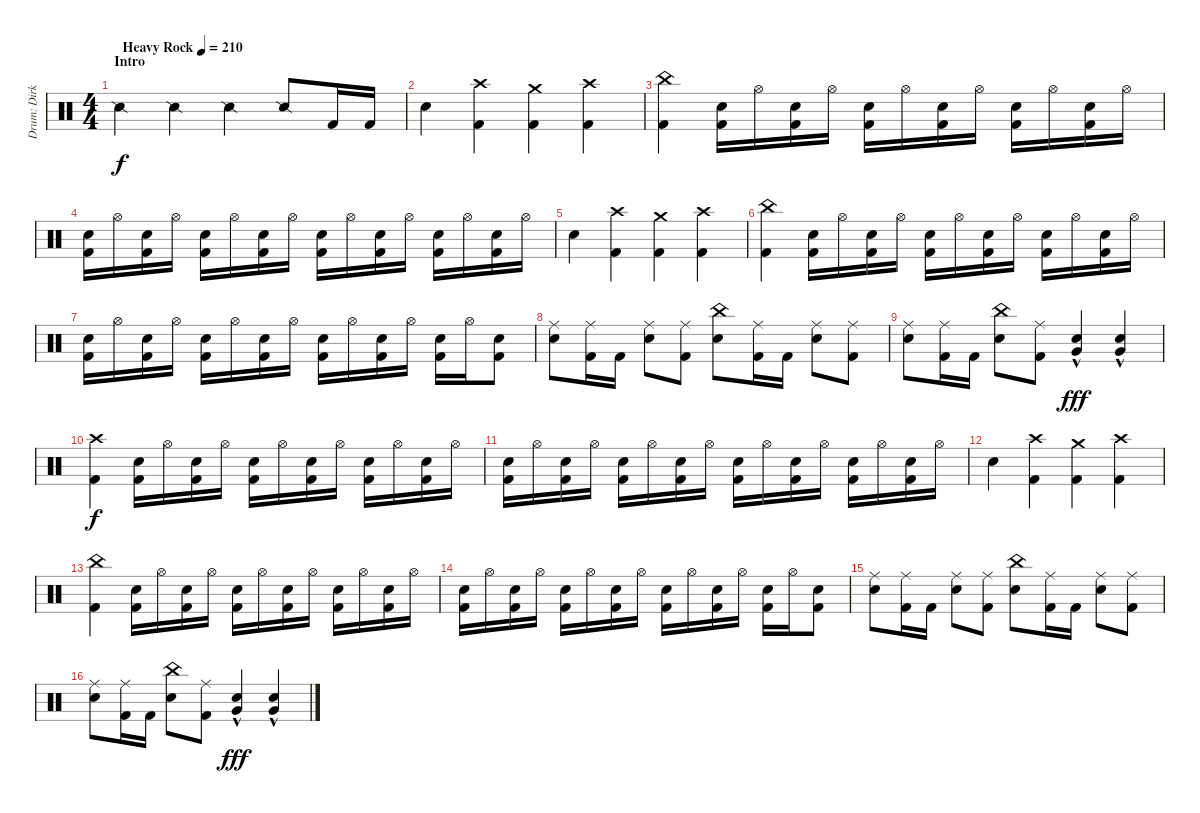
\track ("Drum: Dirk" "Drum: Dirk") {instrument percussion}
\staff {score}
\articulation defaults
\ts (4 4)
\section ("" "Intro")
\tempo (210 "Heavy Rock")
\clef neutral
\ks c "Snare (side stick) 2".4{dy f} "Snare (side stick) 2".4 "Snare (side stick) 2".4 "Snare (side stick) 2".8 "Kick (hit) 2".16 "Kick (hit) 2".16
|
"Electric Snare (hit)".4 ("Crash high (hit)" "Kick (hit) 2").4 ("Crash medium (hit)" "Kick (hit) 2").4 ("Crash high (hit)" "Kick (hit) 2").4 |
("China (hit)" "Kick (hit) 2").4 ("Electric Snare (hit)" "Kick (hit) 2").16 "Hi-Hat (open)".16 ("Electric Snare (hit)" "Kick (hit) 2").16 "Hi-Hat (open)".16 ("Electric Snare (hit)" "Kick (hit) 2").16 "Hi-Hat (open)".16 ("Electric Snare (hit)" "Kick (hit) 2").16 "Hi-Hat (open)".16 ("Electric Snare (hit)" "Kick (hit) 2").16 "Hi-Hat (open)".16 ("Electric Snare (hit)" "Kick (hit) 2").16 "Hi-Hat (open)".16 |
("Electric Snare (hit)" "Kick (hit) 2").16 "Hi-Hat (open)".16 ("Electric Snare (hit)" "Kick (hit) 2").16 "Hi-Hat (open)".16 ("Electric Snare (hit)" "Kick (hit) 2").16 "Hi-Hat (open)".16 ("Electric Snare (hit)" "Kick (hit) 2").16 "Hi-Hat (open)".16 ("Electric Snare (hit)" "Kick (hit) 2").16 "Hi-Hat (open)".16 ("Electric Snare (hit)" "Kick (hit) 2").16 "Hi-Hat (open)".16 ("Electric Snare (hit)" "Kick (hit) 2").16 "Hi-Hat (open)".16 ("Electric Snare (hit)" "Kick (hit) 2").16 "Hi-Hat (open)".16 |
"Electric Snare (hit)".4 ("Crash high (hit)" "Kick (hit) 2").4 ("Crash medium (hit)" "Kick (hit) 2").4 ("Crash high (hit)" "Kick (hit) 2").4 |
("China (hit)" "Kick (hit) 2").4 ("Electric Snare (hit)" "Kick (hit) 2").16 "Hi-Hat (open)".16 ("Electric Snare (hit)" "Kick (hit) 2").16 "Hi-Hat (open)".16 ("Electric Snare (hit)" "Kick (hit) 2").16 "Hi-Hat (open)".16 ("Electric Snare (hit)" "Kick (hit) 2").16 "Hi-Hat (open)".16 ("Electric Snare (hit)" "Kick (hit) 2").16 "Hi-Hat (open)".16 ("Electric Snare (hit)" "Kick (hit) 2").16 "Hi-Hat (open)".16 |
("Electric Snare (hit)" "Kick (hit) 2").16 "Hi-Hat (open)".16 ("Electric Snare (hit)" "Kick (hit) 2").16 "Hi-Hat (open)".16 ("Electric Snare (hit)" "Kick (hit) 2").16 "Hi-Hat (open)".16 ("Electric Snare (hit)" "Kick (hit) 2").16 "Hi-Hat (open)".16 ("Electric Snare (hit)" "Kick (hit) 2").16 "Hi-Hat (open)".16 ("Electric Snare (hit)" "Kick (hit) 2").16 "Hi-Hat (open)".16 ("Electric Snare (hit)" "Kick (hit) 2").16 "Hi-Hat (open)".16 ("Electric Snare (hit)" "Kick (hit) 2").8 |
("Ride (middle)" "Electric Snare (hit)").8 ("Ride (middle)" "Kick (hit) 2").16 "Kick (hit) 2".16 ("Ride (middle)" "Electric Snare (hit)").8 ("Ride (middle)" "Kick (hit) 2").8 ("China (hit)" "Electric Snare (hit)").8 ("Ride (middle)" "Kick (hit) 2").16 "Kick (hit) 2".16 ("Ride (middle)" "Electric Snare (hit)").8 ("Ride (middle)" "Kick (hit) 2").8 |
("Ride (middle)" "Electric Snare (hit)").8 ("Ride (middle)" "Kick (hit) 2").16 "Kick (hit) 2".16 ("China (hit)" "Electric Snare (hit)").8 ("Ride (middle)" "Kick (hit) 2").8 ("Electric Snare (hit)" "Very Low Tom (hit)"{hac}).4{dy fff} ("Electric Snare (hit)" "Very Low Tom (hit)"{hac}).4 |
("Crash high (hit)" "Kick (hit) 2").4{dy f} ("Electric Snare (hit)" "Kick (hit) 2").16 "Hi-Hat (open)".16 ("Electric Snare (hit)" "Kick (hit) 2").16 "Hi-Hat (open)".16 ("Electric Snare (hit)" "Kick (hit) 2").16 "Hi-Hat (open)".16 ("Electric Snare (hit)" "Kick (hit) 2").16 "Hi-Hat (open)".16 ("Electric Snare (hit)" "Kick (hit) 2").16 "Hi-Hat (open)".16 ("Electric Snare (hit)" "Kick (hit) 2").16 "Hi-Hat (open)".16 |
("Electric Snare (hit)" "Kick (hit) 2").16 "Hi-Hat (open)".16 ("Electric Snare (hit)" "Kick (hit) 2").16 "Hi-Hat (open)".16 ("Electric Snare (hit)" "Kick (hit) 2").16 "Hi-Hat (open)".16 ("Electric Snare (hit)" "Kick (hit) 2").16 "Hi-Hat (open)".16 ("Electric Snare (hit)" "Kick (hit) 2").16 "Hi-Hat (open)".16 ("Electric Snare (hit)" "Kick (hit) 2").16 "Hi-Hat (open)".16 ("Electric Snare (hit)" "Kick (hit) 2").16 "Hi-Hat (open)".16 ("Electric Snare (hit)" "Kick (hit) 2").16 "Hi-Hat (open)".16 |
"Electric Snare (hit)".4 ("Crash high (hit)" "Kick (hit) 2").4 ("Crash medium (hit)" "Kick (hit) 2").4 ("Crash high (hit)" "Kick (hit) 2").4 |
("China (hit)" "Kick (hit) 2").4 ("Electric Snare (hit)" "Kick (hit) 2").16 "Hi-Hat (open)".16 ("Electric Snare (hit)" "Kick (hit) 2").16 "Hi-Hat (open)".16 ("Electric Snare (hit)" "Kick (hit) 2").16 "Hi-Hat (open)".16 ("Electric Snare (hit)" "Kick (hit) 2").16 "Hi-Hat (open)".16 ("Electric Snare (hit)" "Kick (hit) 2").16 "Hi-Hat (open)".16 ("Electric Snare (hit)" "Kick (hit) 2").16 "Hi-Hat (open)".16 |
("Electric Snare (hit)" "Kick (hit) 2").16 "Hi-Hat (open)".16 ("Electric Snare (hit)" "Kick (hit) 2").16 "Hi-Hat (open)".16 ("Electric Snare (hit)" "Kick (hit) 2").16 "Hi-Hat (open)".16 ("Electric Snare (hit)" "Kick (hit) 2").16 "Hi-Hat (open)".16 ("Electric Snare (hit)" "Kick (hit) 2").16 "Hi-Hat (open)".16 ("Electric Snare (hit)" "Kick (hit) 2").16 "Hi-Hat (open)".16 ("Electric Snare (hit)" "Kick (hit) 2").16 "Hi-Hat (open)".16 ("Electric Snare (hit)" "Kick (hit) 2").8 |
("Ride (middle)" "Electric Snare (hit)").8 ("Ride (middle)" "Kick (hit) 2").16 "Kick (hit) 2".16 ("Ride (middle)" "Electric Snare (hit)").8 ("Ride (middle)" "Kick (hit) 2").8 ("China (hit)" "Electric Snare (hit)").8 ("Ride (middle)" "Kick (hit) 2").16 "Kick (hit) 2".16 ("Ride (middle)" "Electric Snare (hit)").8 ("Ride (middle)" "Kick (hit) 2").8 |
("Ride (middle)" "Electric Snare (hit)").8 ("Ride (middle)" "Kick (hit) 2").16 "Kick (hit) 2".16 ("China (hit)" "Electric Snare (hit)").8 ("Ride (middle)" "Kick (hit) 2").8 ("Electric Snare (hit)" "Very Low Tom (hit)"{hac}).4{dy fff} ("Electric Snare (hit)" "Very Low Tom (hit)"{hac}).4
